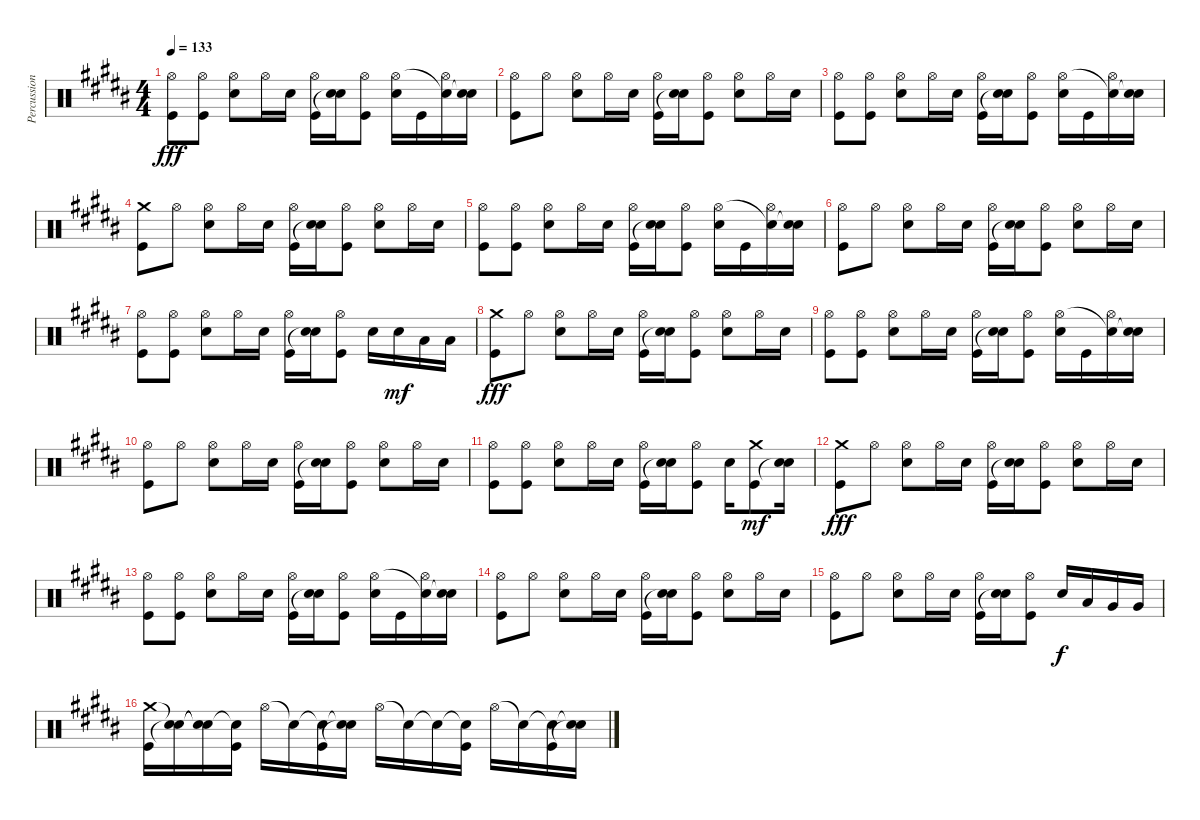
\track ("Percussion" "Percussion") {instrument percussion}
\staff {score}
\articulation defaults
\ts (4 4)
\tempo 133
\clef neutral
\ks b
("Kick (hit)" "Hi-Hat (open)").8{dy fff} ("Kick (hit)" "Hi-Hat (open)").8 ("Electric Snare (hit)" "Hi-Hat (open)").8 "Hi-Hat (open)".16 "Electric Snare (hit)".16 ("Kick (hit)" "Hi-Hat (open)").16 ("Snare (hit)"{t} "Electric Snare (hit)").16 ("Kick (hit)" "Hi-Hat (open)").8 ("Electric Snare (hit)" "Hi-Hat (open)").16 "Kick (hit)".16 ("Hi-Hat (open)" "Snare (hit)"{t}).16 ("Electric Snare (hit)" "Snare (hit)"{t}).16 |
("Hi-Hat (open)" "Kick (hit)").8 "Hi-Hat (open)".8 ("Hi-Hat (open)" "Electric Snare (hit)").8 "Hi-Hat (open)".16 "Electric Snare (hit)".16 ("Hi-Hat (open)" "Kick (hit)").16 ("Electric Snare (hit)" "Snare (hit)"{t}).16 ("Hi-Hat (open)" "Kick (hit)").8 ("Hi-Hat (open)" "Electric Snare (hit)").8 "Hi-Hat (open)".16 "Electric Snare (hit)".16 |
("Kick (hit)" "Hi-Hat (open)").8 ("Kick (hit)" "Hi-Hat (open)").8 ("Electric Snare (hit)" "Hi-Hat (open)").8 "Hi-Hat (open)".16 "Electric Snare (hit)".16 ("Kick (hit)" "Hi-Hat (open)").16 ("Snare (hit)"{t} "Electric Snare (hit)").16 ("Kick (hit)" "Hi-Hat (open)").8 ("Electric Snare (hit)" "Hi-Hat (open)").16 "Kick (hit)".16 ("Hi-Hat (open)" "Snare (hit)"{t}).16 ("Electric Snare (hit)" "Snare (hit)"{t}).16 |
("Crash medium (hit)" "Kick (hit)").8 "Hi-Hat (open)".8 ("Hi-Hat (open)" "Electric Snare (hit)").8 "Hi-Hat (open)".16 "Electric Snare (hit)".16 ("Hi-Hat (open)" "Kick (hit)").16 ("Electric Snare (hit)" "Snare (hit)"{t}).16 ("Hi-Hat (open)" "Kick (hit)").8 ("Hi-Hat (open)" "Electric Snare (hit)").8 "Hi-Hat (open)".16 "Electric Snare (hit)".16 |
("Kick (hit)" "Hi-Hat (open)").8 ("Kick (hit)" "Hi-Hat (open)").8 ("Electric Snare (hit)" "Hi-Hat (open)").8 "Hi-Hat (open)".16 "Electric Snare (hit)".16 ("Kick (hit)" "Hi-Hat (open)").16 ("Snare (hit)"{t} "Electric Snare (hit)").16 ("Kick (hit)" "Hi-Hat (open)").8 ("Electric Snare (hit)" "Hi-Hat (open)").16 "Kick (hit)".16 ("Hi-Hat (open)" "Snare (hit)"{t}).16 ("Electric Snare (hit)" "Snare (hit)"{t}).16 |
("Hi-Hat (open)" "Kick (hit)").8 "Hi-Hat (open)".8 ("Hi-Hat (open)" "Electric Snare (hit)").8 "Hi-Hat (open)".16 "Electric Snare (hit)".16 ("Hi-Hat (open)" "Kick (hit)").16 ("Electric Snare (hit)" "Snare (hit)"{t}).16 ("Hi-Hat (open)" "Kick (hit)").8 ("Hi-Hat (open)" "Electric Snare (hit)").8 "Hi-Hat (open)".16 "Electric Snare (hit)".16 |
("Kick (hit)" "Hi-Hat (open)").8 ("Kick (hit)" "Hi-Hat (open)").8 ("Electric Snare (hit)" "Hi-Hat (open)").8 "Hi-Hat (open)".16 "Electric Snare (hit)".16 ("Kick (hit)" "Hi-Hat (open)").16 ("Snare (hit)"{t} "Electric Snare (hit)").16 ("Kick (hit)" "Hi-Hat (open)").8 "Electric Snare (hit)".16 "Electric Snare (hit)".16{dy mf} "Low Tom (hit)".16 "Low Tom (hit)".16 |
("Crash medium (hit)" "Kick (hit)").8{dy fff} "Hi-Hat (open)".8 ("Hi-Hat (open)" "Electric Snare (hit)").8 "Hi-Hat (open)".16 "Electric Snare (hit)".16 ("Hi-Hat (open)" "Kick (hit)").16 ("Electric Snare (hit)" "Snare (hit)"{t}).16 ("Hi-Hat (open)" "Kick (hit)").8 ("Hi-Hat (open)" "Electric Snare (hit)").8 "Hi-Hat (open)".16 "Electric Snare (hit)".16 |
("Kick (hit)" "Hi-Hat (open)").8 ("Kick (hit)" "Hi-Hat (open)").8 ("Electric Snare (hit)" "Hi-Hat (open)").8 "Hi-Hat (open)".16 "Electric Snare (hit)".16 ("Kick (hit)" "Hi-Hat (open)").16 ("Snare (hit)"{t} "Electric Snare (hit)").16 ("Kick (hit)" "Hi-Hat (open)").8 ("Electric Snare (hit)" "Hi-Hat (open)").16 "Kick (hit)".16 ("Hi-Hat (open)" "Snare (hit)"{t}).16 ("Electric Snare (hit)" "Snare (hit)"{t}).16 |
("Hi-Hat (open)" "Kick (hit)").8 "Hi-Hat (open)".8 ("Hi-Hat (open)" "Electric Snare (hit)").8 "Hi-Hat (open)".16 "Electric Snare (hit)".16 ("Hi-Hat (open)" "Kick (hit)").16 ("Electric Snare (hit)" "Snare (hit)"{t}).16 ("Hi-Hat (open)" "Kick (hit)").8 ("Hi-Hat (open)" "Electric Snare (hit)").8 "Hi-Hat (open)".16 "Electric Snare (hit)".16 |
("Kick (hit)" "Hi-Hat (open)").8 ("Kick (hit)" "Hi-Hat (open)").8 ("Electric Snare (hit)" "Hi-Hat (open)").8 "Hi-Hat (open)".16 "Electric Snare (hit)".16 ("Kick (hit)" "Hi-Hat (open)").16 ("Snare (hit)"{t} "Electric Snare (hit)").16 ("Kick (hit)" "Hi-Hat (open)").8 "Electric Snare (hit)".16 ("Crash medium (hit)" "Kick (hit)").8{dy mf} ("Electric Snare (hit)" "Snare (hit)"{t}).16 |
("Crash medium (hit)" "Kick (hit)").8{dy fff} "Hi-Hat (open)".8 ("Hi-Hat (open)" "Electric Snare (hit)").8 "Hi-Hat (open)".16 "Electric Snare (hit)".16 ("Hi-Hat (open)" "Kick (hit)").16 ("Electric Snare (hit)" "Snare (hit)"{t}).16 ("Hi-Hat (open)" "Kick (hit)").8 ("Hi-Hat (open)" "Electric Snare (hit)").8 "Hi-Hat (open)".16 "Electric Snare (hit)".16 |
("Kick (hit)" "Hi-Hat (open)").8 ("Kick (hit)" "Hi-Hat (open)").8 ("Electric Snare (hit)" "Hi-Hat (open)").8 "Hi-Hat (open)".16 "Electric Snare (hit)".16 ("Kick (hit)" "Hi-Hat (open)").16 ("Snare (hit)"{t} "Electric Snare (hit)").16 ("Kick (hit)" "Hi-Hat (open)").8 ("Electric Snare (hit)" "Hi-Hat (open)").16 "Kick (hit)".16 ("Hi-Hat (open)" "Snare (hit)"{t}).16 ("Electric Snare (hit)" "Snare (hit)"{t}).16 |
("Hi-Hat (open)" "Kick (hit)").8 "Hi-Hat (open)".8 ("Hi-Hat (open)" "Electric Snare (hit)").8 "Hi-Hat (open)".16 "Electric Snare (hit)".16 ("Hi-Hat (open)" "Kick (hit)").16 ("Electric Snare (hit)" "Snare (hit)"{t}).16 ("Hi-Hat (open)" "Kick (hit)").8 ("Hi-Hat (open)" "Electric Snare (hit)").8 "Hi-Hat (open)".16 "Electric Snare (hit)".16 |
("Hi-Hat (open)" "Kick (hit)").8 "Hi-Hat (open)".8 ("Hi-Hat (open)" "Electric Snare (hit)").8 "Hi-Hat (open)".16 "Electric Snare (hit)".16 ("Hi-Hat (open)" "Kick (hit)").16 ("Electric Snare (hit)" "Snare (hit)"{t}).16 ("Hi-Hat (open)" "Kick (hit)").8 "Electric Snare (hit)".16{dy f} "Low Tom (hit)".16 "Very Low Tom (hit)".16 "Very Low Tom (hit)".16 |
("Crash medium (hit)" "Kick (hit)").16 ("Snare (hit)"{t} "Snare (hit)"{t}).16 ("Snare (hit)"{t} "Snare (hit)"{t}).16 ("Snare (hit)"{t} "Kick (hit)").16 "Hi-Hat (open)".16 "Snare (hit)"{t}.16 ("Snare (hit)"{t} "Kick (hit)").16 ("Snare (hit)"{t} "Snare (hit)"{t}).16 "Hi-Hat (open)".16 "Snare (hit)"{t}.16 "Snare (hit)"{t}.16 ("Snare (hit)"{t} "Kick (hit)").16 "Hi-Hat (open)".16 "Snare (hit)"{t}.16 ("Snare (hit)"{t} "Kick (hit)").16 ("Snare (hit)"{t} "Snare (hit)"{t}).16
